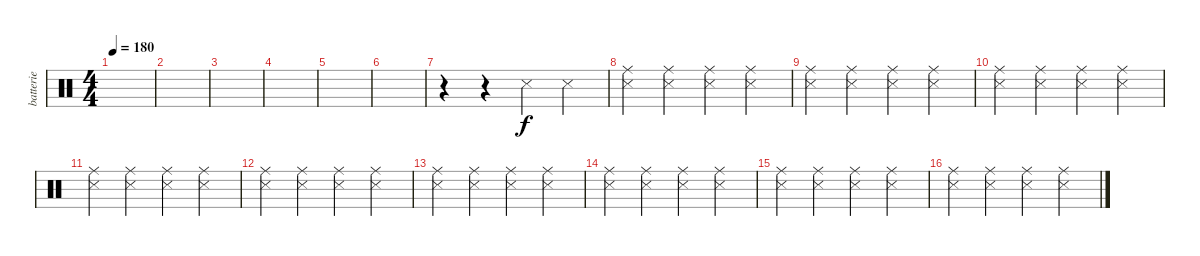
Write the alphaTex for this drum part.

\track ("batterie" "batterie") {instrument percussion}
\staff {score}
\articulation defaults
\ts (4 4)
\tempo 180
\clef neutral
\ks c
|
|
|
|
|
|
r.4{volume 13} r.4 "Snare (side stick) 3".4 "Snare (side stick) 3".4 |
("Ride (middle)" "Snare (side stick) 3").4 ("Ride (middle)" "Snare (side stick) 3").4 ("Ride (middle)" "Snare (side stick) 3").4 ("Ride (middle)" "Snare (side stick) 3").4 |
("Ride (middle)" "Snare (side stick) 3").4 ("Ride (middle)" "Snare (side stick) 3").4 ("Ride (middle)" "Snare (side stick) 3").4 ("Ride (middle)" "Snare (side stick) 3").4 |
("Ride (middle)" "Snare (side stick) 3").4 ("Ride (middle)" "Snare (side stick) 3").4 ("Ride (middle)" "Snare (side stick) 3").4 ("Ride (middle)" "Snare (side stick) 3").4 |
("Ride (middle)" "Snare (side stick) 3").4 ("Ride (middle)" "Snare (side stick) 3").4 ("Ride (middle)" "Snare (side stick) 3").4 ("Ride (middle)" "Snare (side stick) 3").4 |
("Ride (middle)" "Snare (side stick) 3").4 ("Ride (middle)" "Snare (side stick) 3").4 ("Ride (middle)" "Snare (side stick) 3").4 ("Ride (middle)" "Snare (side stick) 3").4 |
("Ride (middle)" "Snare (side stick) 3").4 ("Ride (middle)" "Snare (side stick) 3").4 ("Ride (middle)" "Snare (side stick) 3").4 ("Ride (middle)" "Snare (side stick) 3").4 |
("Ride (middle)" "Snare (side stick) 3").4 ("Ride (middle)" "Snare (side stick) 3").4 ("Ride (middle)" "Snare (side stick) 3").4 ("Ride (middle)" "Snare (side stick) 3").4 |
("Ride (middle)" "Snare (side stick) 3").4 ("Ride (middle)" "Snare (side stick) 3").4 ("Ride (middle)" "Snare (side stick) 3").4 ("Ride (middle)" "Snare (side stick) 3").4 |
("Ride (middle)" "Snare (side stick) 3").4 ("Ride (middle)" "Snare (side stick) 3").4 ("Ride (middle)" "Snare (side stick) 3").4 ("Ride (middle)" "Snare (side stick) 3").4
